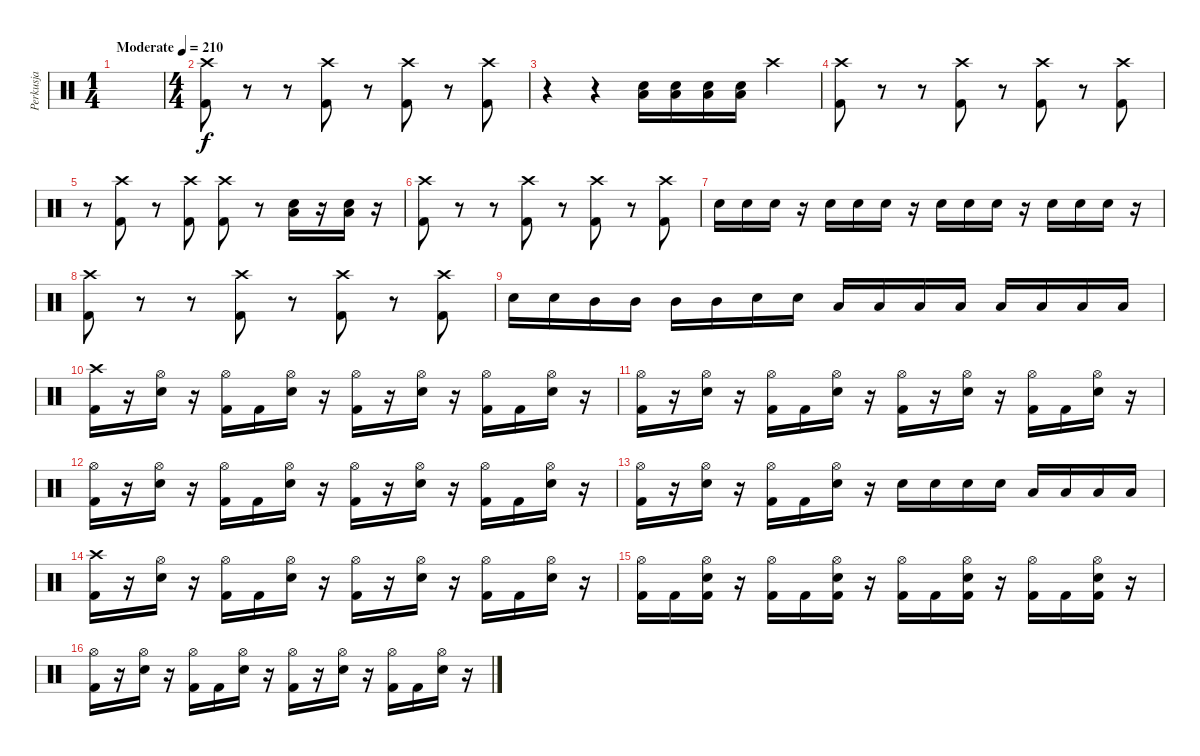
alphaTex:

\track ("Perkusja" "Perkusja") {instrument percussion}
\staff {score}
\articulation defaults
\ts (1 4)
\tempo (210 "Moderate")
\clef neutral
\ks c
|
\ts (4 4)
("Crash high (hit)" "Kick (hit) 2").8 r.8 r.8 ("Crash high (hit)" "Kick (hit) 2").8 r.8 ("Crash high (hit)" "Kick (hit) 2").8 r.8 ("Crash high (hit)" "Kick (hit) 2").8 |
r.4 r.4 ("Low Floor Tom (hit)" "Snare (hit) 2").16 ("Low Floor Tom (hit)" "Snare (hit) 2").16 ("Low Floor Tom (hit)" "Snare (hit) 2").16 ("Low Floor Tom (hit)" "Snare (hit) 2").16 "Crash high (hit)".4 |
("Crash high (hit)" "Kick (hit) 2").8 r.8 r.8 ("Crash high (hit)" "Kick (hit) 2").8 r.8 ("Crash high (hit)" "Kick (hit) 2").8 r.8 ("Crash high (hit)" "Kick (hit) 2").8 |
r.8 ("Crash high (hit)" "Kick (hit) 2").8 r.8 ("Crash high (hit)" "Kick (hit) 2").8 ("Crash high (hit)" "Kick (hit) 2").8 r.8 ("Snare (hit) 2" "Low Floor Tom (hit)").16 r.16 ("Snare (hit) 2" "Low Floor Tom (hit)").16 r.16 |
("Crash high (hit)" "Kick (hit) 2").8 r.8 r.8 ("Crash high (hit)" "Kick (hit) 2").8 r.8 ("Crash high (hit)" "Kick (hit) 2").8 r.8 ("Crash high (hit)" "Kick (hit) 2").8 |
"Snare (hit) 2".16 "Snare (hit) 2".16 "Snare (hit) 2".16 r.16 "Snare (hit) 2".16 "Snare (hit) 2".16 "Snare (hit) 2".16 r.16 "Snare (hit) 2".16 "Snare (hit) 2".16 "Snare (hit) 2".16 r.16 "Snare (hit) 2".16 "Snare (hit) 2".16 "Snare (hit) 2".16 r.16 |
("Crash high (hit)" "Kick (hit) 2").8 r.8 r.8 ("Crash high (hit)" "Kick (hit) 2").8 r.8 ("Crash high (hit)" "Kick (hit) 2").8 r.8 ("Crash high (hit)" "Kick (hit) 2").8 |
"Snare (hit) 2".16 "Snare (hit) 2".16 "Mid Tom (hit)".16 "Mid Tom (hit)".16 "Mid Tom (hit)".16 "Mid Tom (hit)".16 "Snare (hit) 2".16 "Snare (hit) 2".16 "Low Tom (hit)".16 "Low Tom (hit)".16 "Low Tom (hit)".16 "Low Tom (hit)".16 "Low Floor Tom (hit)".16 "Low Floor Tom (hit)".16 "Low Floor Tom (hit)".16 "Low Floor Tom (hit)".16 |
("Crash high (hit)" "Kick (hit) 2").16 r.16 ("Hi-Hat (open)" "Snare (hit) 2").16 r.16 ("Hi-Hat (open)" "Kick (hit) 2").16 "Kick (hit) 2".16 ("Hi-Hat (open)" "Snare (hit) 2").16 r.16 ("Hi-Hat (open)" "Kick (hit) 2").16 r.16 ("Hi-Hat (open)" "Snare (hit) 2").16 r.16 ("Hi-Hat (open)" "Kick (hit) 2").16 "Kick (hit) 2".16 ("Hi-Hat (open)" "Snare (hit) 2").16 r.16 |
("Hi-Hat (open)" "Kick (hit) 2").16 r.16 ("Hi-Hat (open)" "Snare (hit) 2").16 r.16 ("Hi-Hat (open)" "Kick (hit) 2").16 "Kick (hit) 2".16 ("Hi-Hat (open)" "Snare (hit) 2").16 r.16 ("Hi-Hat (open)" "Kick (hit) 2").16 r.16 ("Hi-Hat (open)" "Snare (hit) 2").16 r.16 ("Hi-Hat (open)" "Kick (hit) 2").16 "Kick (hit) 2".16 ("Hi-Hat (open)" "Snare (hit) 2").16 r.16 |
("Hi-Hat (open)" "Kick (hit) 2").16 r.16 ("Hi-Hat (open)" "Snare (hit) 2").16 r.16 ("Hi-Hat (open)" "Kick (hit) 2").16 "Kick (hit) 2".16 ("Hi-Hat (open)" "Snare (hit) 2").16 r.16 ("Hi-Hat (open)" "Kick (hit) 2").16 r.16 ("Hi-Hat (open)" "Snare (hit) 2").16 r.16 ("Hi-Hat (open)" "Kick (hit) 2").16 "Kick (hit) 2".16 ("Hi-Hat (open)" "Snare (hit) 2").16 r.16 |
("Hi-Hat (open)" "Kick (hit) 2").16 r.16 ("Hi-Hat (open)" "Snare (hit) 2").16 r.16 ("Hi-Hat (open)" "Kick (hit) 2").16 "Kick (hit) 2".16 ("Hi-Hat (open)" "Snare (hit) 2").16 r.16 "Snare (hit) 2".16 "Snare (hit) 2".16 "Snare (hit) 2".16 "Snare (hit) 2".16 "Low Tom (hit)".16 "Low Tom (hit)".16 "Low Floor Tom (hit)".16 "Low Floor Tom (hit)".16 |
("Crash high (hit)" "Kick (hit) 2").16 r.16 ("Hi-Hat (open)" "Snare (hit) 2").16 r.16 ("Hi-Hat (open)" "Kick (hit) 2").16 "Kick (hit) 2".16 ("Hi-Hat (open)" "Snare (hit) 2").16 r.16 ("Hi-Hat (open)" "Kick (hit) 2").16 r.16 ("Hi-Hat (open)" "Snare (hit) 2").16 r.16 ("Hi-Hat (open)" "Kick (hit) 2").16 "Kick (hit) 2".16 ("Hi-Hat (open)" "Snare (hit) 2").16 r.16 |
("Hi-Hat (open)" "Kick (hit) 2").16 "Kick (hit) 2".16 ("Hi-Hat (open)" "Snare (hit) 2" "Kick (hit) 2").16 r.16 ("Hi-Hat (open)" "Kick (hit) 2").16 "Kick (hit) 2".16 ("Hi-Hat (open)" "Snare (hit) 2" "Kick (hit) 2").16 r.16 ("Hi-Hat (open)" "Kick (hit) 2").16 "Kick (hit) 2".16 ("Hi-Hat (open)" "Snare (hit) 2" "Kick (hit) 2").16 r.16 ("Hi-Hat (open)" "Kick (hit) 2").16 "Kick (hit) 2".16 ("Hi-Hat (open)" "Snare (hit) 2" "Kick (hit) 2").16 r.16 |
("Hi-Hat (open)" "Kick (hit) 2").16 r.16 ("Hi-Hat (open)" "Snare (hit) 2").16 r.16 ("Hi-Hat (open)" "Kick (hit) 2").16 "Kick (hit) 2".16 ("Hi-Hat (open)" "Snare (hit) 2").16 r.16 ("Hi-Hat (open)" "Kick (hit) 2").16 r.16 ("Hi-Hat (open)" "Snare (hit) 2").16 r.16 ("Hi-Hat (open)" "Kick (hit) 2").16 "Kick (hit) 2".16 ("Hi-Hat (open)" "Snare (hit) 2").16 r.16
